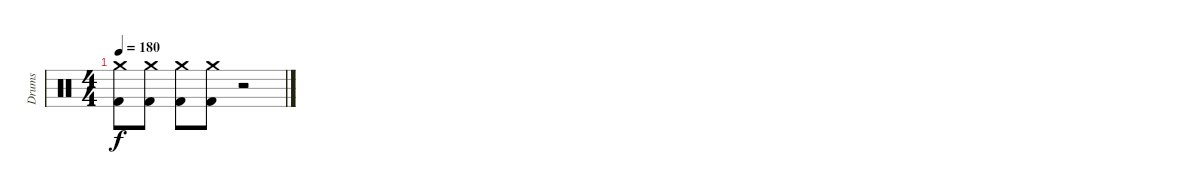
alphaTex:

\track ("Drums" "Drums") {instrument percussion}
\staff {score}
\articulation defaults
\ts (4 4)
\tempo 180
\clef neutral
\ks c
("Crash medium (hit)" "Kick (hit) 2").8{dy f} ("Crash medium (hit)" "Kick (hit) 2").8 ("Crash medium (hit)" "Kick (hit) 2").8 ("Crash medium (hit)" "Kick (hit) 2").8 r.2
